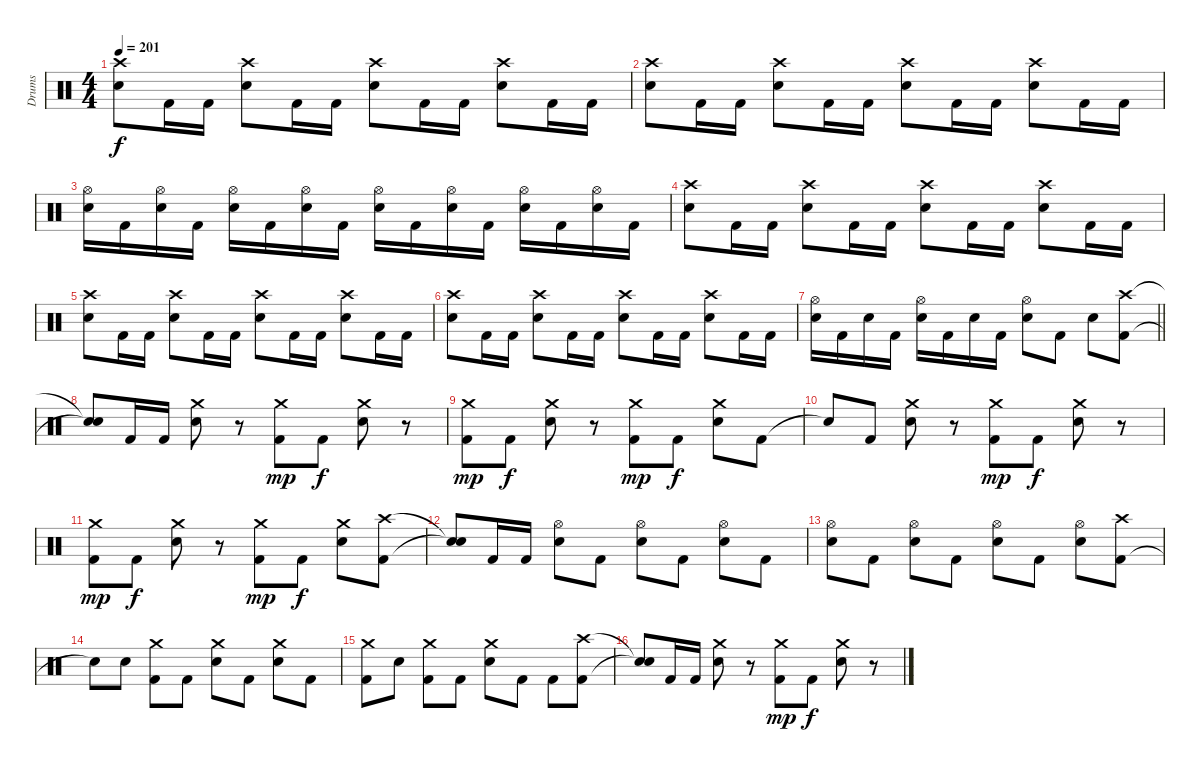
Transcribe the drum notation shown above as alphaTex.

\track ("Drums" "Drums") {instrument percussion}
\staff {score}
\articulation defaults
\ts (4 4)
\tempo 201
\clef neutral
\ks c
("Snare (hit) 2" "Crash high (hit)").8{dy f} "Kick (hit) 2".16 "Kick (hit) 2".16 ("Snare (hit) 2" "Crash high (hit)").8 "Kick (hit) 2".16 "Kick (hit) 2".16 ("Snare (hit) 2" "Crash high (hit)").8 "Kick (hit) 2".16 "Kick (hit) 2".16 ("Snare (hit) 2" "Crash high (hit)").8 "Kick (hit) 2".16 "Kick (hit) 2".16 |
("Snare (hit) 2" "Crash high (hit)").8 "Kick (hit) 2".16 "Kick (hit) 2".16 ("Snare (hit) 2" "Crash high (hit)").8 "Kick (hit) 2".16 "Kick (hit) 2".16 ("Snare (hit) 2" "Crash high (hit)").8 "Kick (hit) 2".16 "Kick (hit) 2".16 ("Snare (hit) 2" "Crash high (hit)").8 "Kick (hit) 2".16 "Kick (hit) 2".16 |
("Snare (hit) 2" "Hi-Hat (open)").16 "Kick (hit) 2".16 ("Snare (hit) 2" "Hi-Hat (open)").16 "Kick (hit) 2".16 ("Snare (hit) 2" "Hi-Hat (open)").16 "Kick (hit) 2".16 ("Snare (hit) 2" "Hi-Hat (open)").16 "Kick (hit) 2".16 ("Snare (hit) 2" "Hi-Hat (open)").16 "Kick (hit) 2".16 ("Snare (hit) 2" "Hi-Hat (open)").16 "Kick (hit) 2".16 ("Snare (hit) 2" "Hi-Hat (open)").16 "Kick (hit) 2".16 ("Snare (hit) 2" "Hi-Hat (open)").16 "Kick (hit) 2".16 |
("Snare (hit) 2" "Crash high (hit)").8 "Kick (hit) 2".16 "Kick (hit) 2".16 ("Snare (hit) 2" "Crash high (hit)").8 "Kick (hit) 2".16 "Kick (hit) 2".16 ("Snare (hit) 2" "Crash high (hit)").8 "Kick (hit) 2".16 "Kick (hit) 2".16 ("Snare (hit) 2" "Crash high (hit)").8 "Kick (hit) 2".16 "Kick (hit) 2".16 |
("Snare (hit) 2" "Crash high (hit)").8 "Kick (hit) 2".16 "Kick (hit) 2".16 ("Snare (hit) 2" "Crash high (hit)").8 "Kick (hit) 2".16 "Kick (hit) 2".16 ("Snare (hit) 2" "Crash high (hit)").8 "Kick (hit) 2".16 "Kick (hit) 2".16 ("Snare (hit) 2" "Crash high (hit)").8 "Kick (hit) 2".16 "Kick (hit) 2".16 |
("Snare (hit) 2" "Crash high (hit)").8 "Kick (hit) 2".16 "Kick (hit) 2".16 ("Snare (hit) 2" "Crash high (hit)").8 "Kick (hit) 2".16 "Kick (hit) 2".16 ("Snare (hit) 2" "Crash high (hit)").8 "Kick (hit) 2".16 "Kick (hit) 2".16 ("Snare (hit) 2" "Crash high (hit)").8 "Kick (hit) 2".16 "Kick (hit) 2".16 |
\barLineRight lightlight
("Snare (hit) 2" "Hi-Hat (open)").16 "Kick (hit) 2".16 "Snare (hit) 2".16 "Kick (hit) 2".16 ("Snare (hit) 2" "Hi-Hat (open)").16 "Kick (hit) 2".16 "Snare (hit) 2".16 "Kick (hit) 2".16 ("Snare (hit) 2" "Hi-Hat (open)").8 "Kick (hit) 2".8 "Snare (hit) 2".8 ("Kick (hit) 2" "Crash high (hit)").8 |
\section ("" " ")
("Snare (hit)"{t} "Snare (hit)"{t}).8 "Kick (hit) 2".16 "Kick (hit) 2".16 ("Snare (hit) 2" "Crash medium (hit)").8 r.8 ("Kick (hit) 2" "Crash medium (hit)").8{dy mp} "Kick (hit) 2".8{dy f} ("Snare (hit) 2" "Crash medium (hit)").8 r.8 |
("Kick (hit) 2" "Crash medium (hit)").8{dy mp} "Kick (hit) 2".8{dy f} ("Snare (hit) 2" "Crash medium (hit)").8 r.8 ("Kick (hit) 2" "Crash medium (hit)").8{dy mp} "Kick (hit) 2".8{dy f} ("Snare (hit) 2" "Crash medium (hit)").8 "Kick (hit) 2".8 |
"Snare (hit)"{t}.8 "Kick (hit) 2".8 ("Snare (hit) 2" "Crash medium (hit)").8 r.8 ("Kick (hit) 2" "Crash medium (hit)").8{dy mp} "Kick (hit) 2".8{dy f} ("Snare (hit) 2" "Crash medium (hit)").8 r.8 |
("Kick (hit) 2" "Crash medium (hit)").8{dy mp} "Kick (hit) 2".8{dy f} ("Snare (hit) 2" "Crash medium (hit)").8 r.8 ("Kick (hit) 2" "Crash medium (hit)").8{dy mp} "Kick (hit) 2".8{dy f} ("Snare (hit) 2" "Crash medium (hit)").8 ("Kick (hit) 2" "Crash high (hit)").8 |
("Snare (hit)"{t} "Snare (hit)"{t}).8 "Kick (hit) 2".16 "Kick (hit) 2".16 ("Snare (hit) 2" "Hi-Hat (open)").8 "Kick (hit) 2".8 ("Snare (hit) 2" "Hi-Hat (open)").8 "Kick (hit) 2".8 ("Snare (hit) 2" "Hi-Hat (open)").8 "Kick (hit) 2".8 |
("Snare (hit) 2" "Hi-Hat (open)").8 "Kick (hit) 2".8 ("Snare (hit) 2" "Hi-Hat (open)").8 "Kick (hit) 2".8 ("Snare (hit) 2" "Hi-Hat (open)").8 "Kick (hit) 2".8 ("Snare (hit) 2" "Hi-Hat (open)").8 ("Kick (hit) 2" "Crash high (hit)").8 |
"Snare (hit)"{t}.8 "Snare (hit) 2".8 ("Kick (hit) 2" "Crash medium (hit)").8 "Kick (hit) 2".8 ("Snare (hit) 2" "Crash medium (hit)").8 "Kick (hit) 2".8 ("Snare (hit) 2" "Crash medium (hit)").8 "Kick (hit) 2".8 |
("Kick (hit) 2" "Crash medium (hit)").8 "Snare (hit) 2".8 ("Kick (hit) 2" "Crash medium (hit)").8 "Kick (hit) 2".8 ("Snare (hit) 2" "Crash medium (hit)").8 "Kick (hit) 2".8 "Kick (hit) 2".8 ("Kick (hit) 2" "Crash high (hit)").8 |
("Snare (hit)"{t} "Snare (hit)"{t}).8 "Kick (hit) 2".16 "Kick (hit) 2".16 ("Snare (hit) 2" "Crash medium (hit)").8 r.8 ("Kick (hit) 2" "Crash medium (hit)").8{dy mp} "Kick (hit) 2".8{dy f} ("Snare (hit) 2" "Crash medium (hit)").8 r.8
